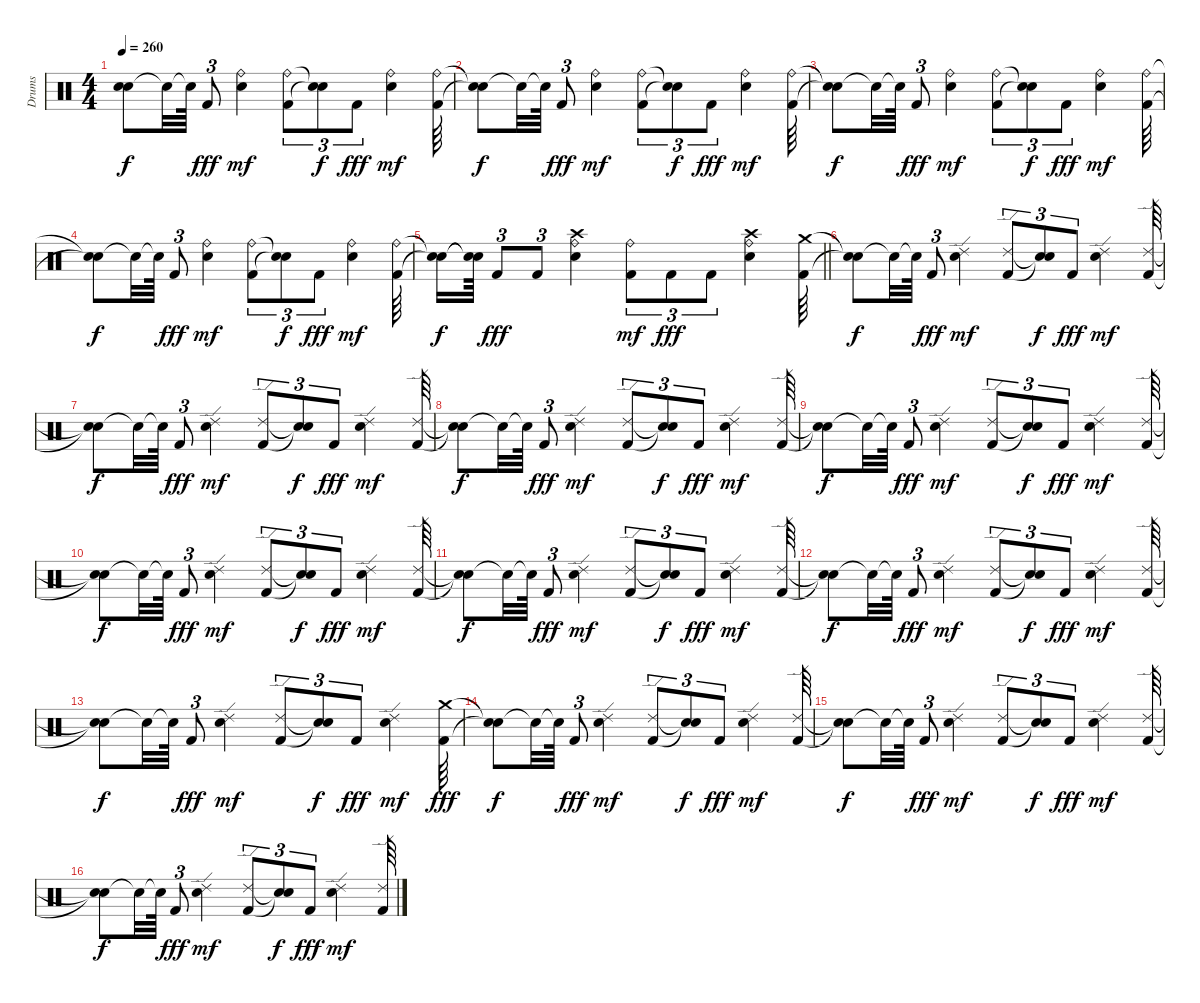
\track ("Drums" "Drums") {instrument percussion}
\staff {score}
\articulation defaults
\ts (4 4)
\tempo 260
\clef neutral
\ks c
("Snare (hit)"{t} "Snare (hit)"{t}).8{dy f} "Snare (hit)"{t}.32 "Snare (hit)"{t}.64 "Kick (hit) 2".8{tu (3 2) dy fff} ("Electric Snare (hit)" "Ride (bell)").4{dy mf} ("Kick (hit) 2" "Ride (bell)").8{tu (3 2)} ("Snare (hit)"{t} "Snare (hit)"{t}).8{tu (3 2) dy f} "Kick (hit) 2".8{tu (3 2) dy fff} ("Electric Snare (hit)" "Ride (bell)").4{dy mf} ("Kick (hit) 2" "Ride (bell)").64 |
("Snare (hit)"{t} "Snare (hit)"{t}).8{dy f} "Snare (hit)"{t}.32 "Snare (hit)"{t}.64 "Kick (hit) 2".8{tu (3 2) dy fff} ("Electric Snare (hit)" "Ride (bell)").4{dy mf} ("Kick (hit) 2" "Ride (bell)").8{tu (3 2)} ("Snare (hit)"{t} "Snare (hit)"{t}).8{tu (3 2) dy f} "Kick (hit) 2".8{tu (3 2) dy fff} ("Electric Snare (hit)" "Ride (bell)").4{dy mf} ("Kick (hit) 2" "Ride (bell)").64 |
("Snare (hit)"{t} "Snare (hit)"{t}).8{dy f} "Snare (hit)"{t}.32 "Snare (hit)"{t}.64 "Kick (hit) 2".8{tu (3 2) dy fff} ("Electric Snare (hit)" "Ride (bell)").4{dy mf} ("Kick (hit) 2" "Ride (bell)").8{tu (3 2)} ("Snare (hit)"{t} "Snare (hit)"{t}).8{tu (3 2) dy f} "Kick (hit) 2".8{tu (3 2) dy fff} ("Electric Snare (hit)" "Ride (bell)").4{dy mf} ("Kick (hit) 2" "Ride (bell)").64 |
("Snare (hit)"{t} "Snare (hit)"{t}).8{dy f} "Snare (hit)"{t}.32 "Snare (hit)"{t}.64 "Kick (hit) 2".8{tu (3 2) dy fff} ("Electric Snare (hit)" "Ride (bell)").4{dy mf} ("Kick (hit) 2" "Ride (bell)").8{tu (3 2)} ("Snare (hit)"{t} "Snare (hit)"{t}).8{tu (3 2) dy f} "Kick (hit) 2".8{tu (3 2) dy fff} ("Electric Snare (hit)" "Ride (bell)").4{dy mf} ("Kick (hit) 2" "Ride (bell)").64 |
\barLineRight lightlight
("Snare (hit)"{t} "Snare (hit)"{t}).16{dy f} ("Snare (hit)"{t} "Snare (hit)"{t}).64 "Kick (hit) 2".8{tu (3 2) dy fff} "Kick (hit) 2".8{tu (3 2)} ("Electric Snare (hit)" "Ride (bell)" "Crash high (hit)").4 ("Kick (hit) 2" "Ride (bell)").8{tu (3 2) dy mf} "Kick (hit) 2".8{tu (3 2) dy fff} "Kick (hit) 2".8{tu (3 2)} ("Electric Snare (hit)" "Ride (bell)" "Crash high (hit)").4 ("Kick (hit) 2" "Crash medium (hit)").64 |
("Snare (hit)"{t} "Snare (hit)"{t}).8{dy f} "Snare (hit)"{t}.32 "Snare (hit)"{t}.64 "Kick (hit) 2".8{tu (3 2) dy fff} ("Electric Snare (hit)" "Ride (edge) 2").4{dy mf} ("Kick (hit) 2" "Ride (edge) 2").8{tu (3 2)} ("Snare (hit)"{t} "Snare (hit)"{t}).8{tu (3 2) dy f} "Kick (hit) 2".8{tu (3 2) dy fff} ("Electric Snare (hit)" "Ride (edge) 2").4{dy mf} ("Kick (hit) 2" "Ride (edge) 2").64 |
("Snare (hit)"{t} "Snare (hit)"{t}).8{dy f} "Snare (hit)"{t}.32 "Snare (hit)"{t}.64 "Kick (hit) 2".8{tu (3 2) dy fff} ("Electric Snare (hit)" "Ride (edge) 2").4{dy mf} ("Kick (hit) 2" "Ride (edge) 2").8{tu (3 2)} ("Snare (hit)"{t} "Snare (hit)"{t}).8{tu (3 2) dy f} "Kick (hit) 2".8{tu (3 2) dy fff} ("Electric Snare (hit)" "Ride (edge) 2").4{dy mf} ("Kick (hit) 2" "Ride (edge) 2").64 |
("Snare (hit)"{t} "Snare (hit)"{t}).8{dy f} "Snare (hit)"{t}.32 "Snare (hit)"{t}.64 "Kick (hit) 2".8{tu (3 2) dy fff} ("Electric Snare (hit)" "Ride (edge) 2").4{dy mf} ("Kick (hit) 2" "Ride (edge) 2").8{tu (3 2)} ("Snare (hit)"{t} "Snare (hit)"{t}).8{tu (3 2) dy f} "Kick (hit) 2".8{tu (3 2) dy fff} ("Electric Snare (hit)" "Ride (edge) 2").4{dy mf} ("Kick (hit) 2" "Ride (edge) 2").64 |
("Snare (hit)"{t} "Snare (hit)"{t}).8{dy f} "Snare (hit)"{t}.32 "Snare (hit)"{t}.64 "Kick (hit) 2".8{tu (3 2) dy fff} ("Electric Snare (hit)" "Ride (edge) 2").4{dy mf} ("Kick (hit) 2" "Ride (edge) 2").8{tu (3 2)} ("Snare (hit)"{t} "Snare (hit)"{t}).8{tu (3 2) dy f} "Kick (hit) 2".8{tu (3 2) dy fff} ("Electric Snare (hit)" "Ride (edge) 2").4{dy mf} ("Kick (hit) 2" "Ride (edge) 2").64 |
("Snare (hit)"{t} "Snare (hit)"{t}).8{dy f} "Snare (hit)"{t}.32 "Snare (hit)"{t}.64 "Kick (hit) 2".8{tu (3 2) dy fff} ("Electric Snare (hit)" "Ride (edge) 2").4{dy mf} ("Kick (hit) 2" "Ride (edge) 2").8{tu (3 2)} ("Snare (hit)"{t} "Snare (hit)"{t}).8{tu (3 2) dy f} "Kick (hit) 2".8{tu (3 2) dy fff} ("Electric Snare (hit)" "Ride (edge) 2").4{dy mf} ("Kick (hit) 2" "Ride (edge) 2").64 |
("Snare (hit)"{t} "Snare (hit)"{t}).8{dy f} "Snare (hit)"{t}.32 "Snare (hit)"{t}.64 "Kick (hit) 2".8{tu (3 2) dy fff} ("Electric Snare (hit)" "Ride (edge) 2").4{dy mf} ("Kick (hit) 2" "Ride (edge) 2").8{tu (3 2)} ("Snare (hit)"{t} "Snare (hit)"{t}).8{tu (3 2) dy f} "Kick (hit) 2".8{tu (3 2) dy fff} ("Electric Snare (hit)" "Ride (edge) 2").4{dy mf} ("Kick (hit) 2" "Ride (edge) 2").64 |
("Snare (hit)"{t} "Snare (hit)"{t}).8{dy f} "Snare (hit)"{t}.32 "Snare (hit)"{t}.64 "Kick (hit) 2".8{tu (3 2) dy fff} ("Electric Snare (hit)" "Ride (edge) 2").4{dy mf} ("Kick (hit) 2" "Ride (edge) 2").8{tu (3 2)} ("Snare (hit)"{t} "Snare (hit)"{t}).8{tu (3 2) dy f} "Kick (hit) 2".8{tu (3 2) dy fff} ("Electric Snare (hit)" "Ride (edge) 2").4{dy mf} ("Kick (hit) 2" "Ride (edge) 2").64 |
("Snare (hit)"{t} "Snare (hit)"{t}).8{dy f} "Snare (hit)"{t}.32 "Snare (hit)"{t}.64 "Kick (hit) 2".8{tu (3 2) dy fff} ("Electric Snare (hit)" "Ride (edge) 2").4{dy mf} ("Kick (hit) 2" "Ride (edge) 2").8{tu (3 2)} ("Snare (hit)"{t} "Snare (hit)"{t}).8{tu (3 2) dy f} "Kick (hit) 2".8{tu (3 2) dy fff} ("Electric Snare (hit)" "Ride (edge) 2").4{dy mf} ("Kick (hit) 2" "Crash medium (hit)").64{dy fff} |
("Snare (hit)"{t} "Snare (hit)"{t}).8{dy f} "Snare (hit)"{t}.32 "Snare (hit)"{t}.64 "Kick (hit) 2".8{tu (3 2) dy fff} ("Electric Snare (hit)" "Ride (edge) 2").4{dy mf} ("Kick (hit) 2" "Ride (edge) 2").8{tu (3 2)} ("Snare (hit)"{t} "Snare (hit)"{t}).8{tu (3 2) dy f} "Kick (hit) 2".8{tu (3 2) dy fff} ("Electric Snare (hit)" "Ride (edge) 2").4{dy mf} ("Kick (hit) 2" "Ride (edge) 2").64 |
("Snare (hit)"{t} "Snare (hit)"{t}).8{dy f} "Snare (hit)"{t}.32 "Snare (hit)"{t}.64 "Kick (hit) 2".8{tu (3 2) dy fff} ("Electric Snare (hit)" "Ride (edge) 2").4{dy mf} ("Kick (hit) 2" "Ride (edge) 2").8{tu (3 2)} ("Snare (hit)"{t} "Snare (hit)"{t}).8{tu (3 2) dy f} "Kick (hit) 2".8{tu (3 2) dy fff} ("Electric Snare (hit)" "Ride (edge) 2").4{dy mf} ("Kick (hit) 2" "Ride (edge) 2").64 |
("Snare (hit)"{t} "Snare (hit)"{t}).8{dy f} "Snare (hit)"{t}.32 "Snare (hit)"{t}.64 "Kick (hit) 2".8{tu (3 2) dy fff} ("Electric Snare (hit)" "Ride (edge) 2").4{dy mf} ("Kick (hit) 2" "Ride (edge) 2").8{tu (3 2)} ("Snare (hit)"{t} "Snare (hit)"{t}).8{tu (3 2) dy f} "Kick (hit) 2".8{tu (3 2) dy fff} ("Electric Snare (hit)" "Ride (edge) 2").4{dy mf} ("Kick (hit) 2" "Ride (edge) 2").64
